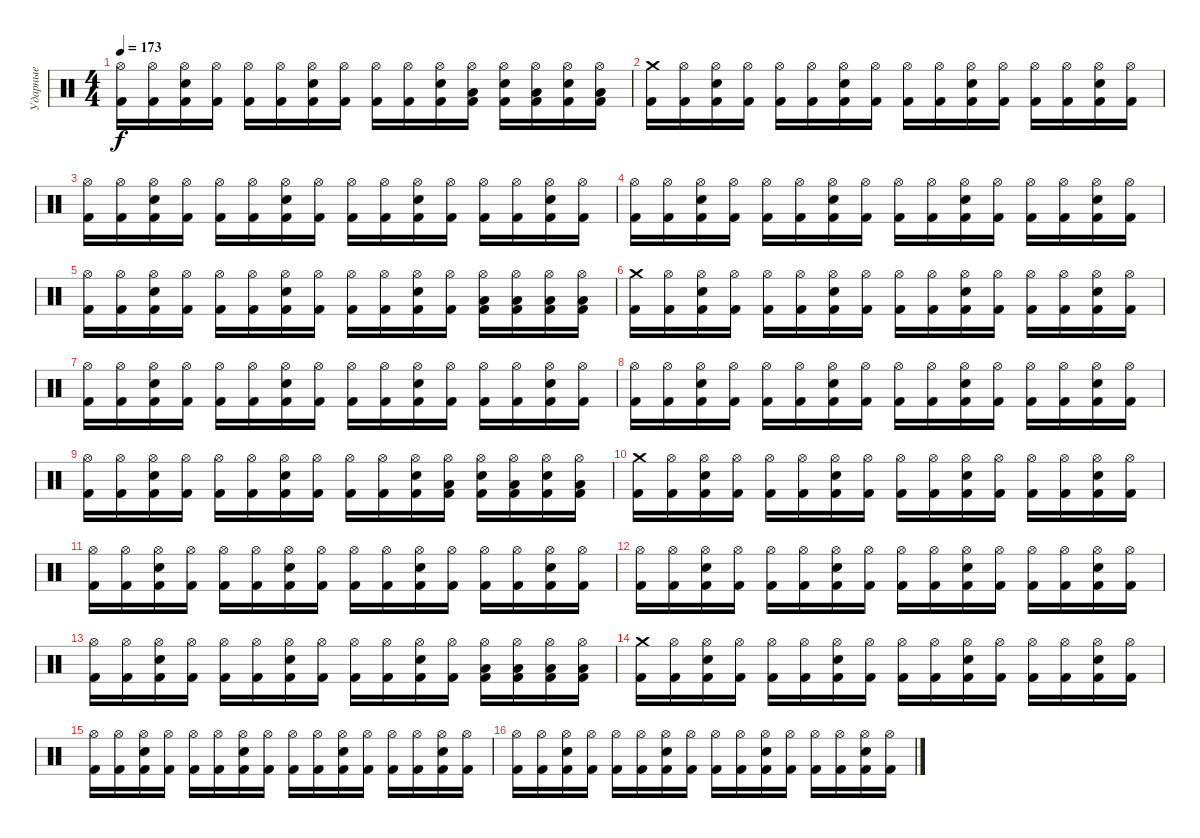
\track ("Ударные" "Ударные") {instrument percussion}
\staff {score}
\articulation defaults
\ts (4 4)
\tempo 173
\clef neutral
\ks c
("Hi-Hat (open)" "Kick (hit) 2").16{dy f} ("Hi-Hat (open)" "Kick (hit) 2").16 ("Hi-Hat (open)" "Electric Snare (hit)" "Kick (hit) 2").16 ("Hi-Hat (open)" "Kick (hit) 2").16 ("Hi-Hat (open)" "Kick (hit) 2").16 ("Hi-Hat (open)" "Kick (hit) 2").16 ("Hi-Hat (open)" "Electric Snare (hit)" "Kick (hit) 2").16 ("Hi-Hat (open)" "Kick (hit) 2").16 ("Hi-Hat (open)" "Kick (hit) 2").16 ("Hi-Hat (open)" "Kick (hit) 2").16 ("Hi-Hat (open)" "Electric Snare (hit)" "Kick (hit) 2").16 ("Hi-Hat (open)" "Low Tom (hit)" "Kick (hit) 2").16 ("Hi-Hat (open)" "Electric Snare (hit)" "Kick (hit) 2").16 ("Hi-Hat (open)" "Low Tom (hit)" "Kick (hit) 2").16 ("Hi-Hat (open)" "Electric Snare (hit)" "Kick (hit) 2").16 ("Hi-Hat (open)" "Low Tom (hit)" "Kick (hit) 2").16 |
("Crash medium (hit)" "Kick (hit) 2").16 ("Hi-Hat (open)" "Kick (hit) 2").16 ("Hi-Hat (open)" "Electric Snare (hit)" "Kick (hit) 2").16 ("Hi-Hat (open)" "Kick (hit) 2").16 ("Hi-Hat (open)" "Kick (hit) 2").16 ("Hi-Hat (open)" "Kick (hit) 2").16 ("Hi-Hat (open)" "Electric Snare (hit)" "Kick (hit) 2").16 ("Hi-Hat (open)" "Kick (hit) 2").16 ("Hi-Hat (open)" "Kick (hit) 2").16 ("Hi-Hat (open)" "Kick (hit) 2").16 ("Hi-Hat (open)" "Electric Snare (hit)" "Kick (hit) 2").16 ("Hi-Hat (open)" "Kick (hit) 2").16 ("Hi-Hat (open)" "Kick (hit) 2").16 ("Hi-Hat (open)" "Kick (hit) 2").16 ("Hi-Hat (open)" "Electric Snare (hit)" "Kick (hit) 2").16 ("Hi-Hat (open)" "Kick (hit) 2").16 |
("Hi-Hat (open)" "Kick (hit) 2").16 ("Hi-Hat (open)" "Kick (hit) 2").16 ("Hi-Hat (open)" "Electric Snare (hit)" "Kick (hit) 2").16 ("Hi-Hat (open)" "Kick (hit) 2").16 ("Hi-Hat (open)" "Kick (hit) 2").16 ("Hi-Hat (open)" "Kick (hit) 2").16 ("Hi-Hat (open)" "Electric Snare (hit)" "Kick (hit) 2").16 ("Hi-Hat (open)" "Kick (hit) 2").16 ("Hi-Hat (open)" "Kick (hit) 2").16 ("Hi-Hat (open)" "Kick (hit) 2").16 ("Hi-Hat (open)" "Electric Snare (hit)" "Kick (hit) 2").16 ("Hi-Hat (open)" "Kick (hit) 2").16 ("Hi-Hat (open)" "Kick (hit) 2").16 ("Hi-Hat (open)" "Kick (hit) 2").16 ("Hi-Hat (open)" "Electric Snare (hit)" "Kick (hit) 2").16 ("Hi-Hat (open)" "Kick (hit) 2").16 |
("Hi-Hat (open)" "Kick (hit) 2").16 ("Hi-Hat (open)" "Kick (hit) 2").16 ("Hi-Hat (open)" "Electric Snare (hit)" "Kick (hit) 2").16 ("Hi-Hat (open)" "Kick (hit) 2").16 ("Hi-Hat (open)" "Kick (hit) 2").16 ("Hi-Hat (open)" "Kick (hit) 2").16 ("Hi-Hat (open)" "Electric Snare (hit)" "Kick (hit) 2").16 ("Hi-Hat (open)" "Kick (hit) 2").16 ("Hi-Hat (open)" "Kick (hit) 2").16 ("Hi-Hat (open)" "Kick (hit) 2").16 ("Hi-Hat (open)" "Electric Snare (hit)" "Kick (hit) 2").16 ("Hi-Hat (open)" "Kick (hit) 2").16 ("Hi-Hat (open)" "Kick (hit) 2").16 ("Hi-Hat (open)" "Kick (hit) 2").16 ("Hi-Hat (open)" "Electric Snare (hit)" "Kick (hit) 2").16 ("Hi-Hat (open)" "Kick (hit) 2").16 |
("Hi-Hat (open)" "Kick (hit) 2").16 ("Hi-Hat (open)" "Kick (hit) 2").16 ("Hi-Hat (open)" "Electric Snare (hit)" "Kick (hit) 2").16 ("Hi-Hat (open)" "Kick (hit) 2").16 ("Hi-Hat (open)" "Kick (hit) 2").16 ("Hi-Hat (open)" "Kick (hit) 2").16 ("Hi-Hat (open)" "Electric Snare (hit)" "Kick (hit) 2").16 ("Hi-Hat (open)" "Kick (hit) 2").16 ("Hi-Hat (open)" "Kick (hit) 2").16 ("Hi-Hat (open)" "Kick (hit) 2").16 ("Hi-Hat (open)" "Electric Snare (hit)" "Kick (hit) 2").16 ("Hi-Hat (open)" "Kick (hit) 2").16 ("Hi-Hat (open)" "Low Tom (hit)" "Kick (hit) 2").16 ("Hi-Hat (open)" "Low Tom (hit)" "Kick (hit) 2").16 ("Hi-Hat (open)" "Low Tom (hit)" "Kick (hit) 2").16 ("Hi-Hat (open)" "Low Tom (hit)" "Kick (hit) 2").16 |
("Crash medium (hit)" "Kick (hit) 2").16 ("Hi-Hat (open)" "Kick (hit) 2").16 ("Hi-Hat (open)" "Electric Snare (hit)" "Kick (hit) 2").16 ("Hi-Hat (open)" "Kick (hit) 2").16 ("Hi-Hat (open)" "Kick (hit) 2").16 ("Hi-Hat (open)" "Kick (hit) 2").16 ("Hi-Hat (open)" "Electric Snare (hit)" "Kick (hit) 2").16 ("Hi-Hat (open)" "Kick (hit) 2").16 ("Hi-Hat (open)" "Kick (hit) 2").16 ("Hi-Hat (open)" "Kick (hit) 2").16 ("Hi-Hat (open)" "Electric Snare (hit)" "Kick (hit) 2").16 ("Hi-Hat (open)" "Kick (hit) 2").16 ("Hi-Hat (open)" "Kick (hit) 2").16 ("Hi-Hat (open)" "Kick (hit) 2").16 ("Hi-Hat (open)" "Electric Snare (hit)" "Kick (hit) 2").16 ("Hi-Hat (open)" "Kick (hit) 2").16 |
("Hi-Hat (open)" "Kick (hit) 2").16 ("Hi-Hat (open)" "Kick (hit) 2").16 ("Hi-Hat (open)" "Electric Snare (hit)" "Kick (hit) 2").16 ("Hi-Hat (open)" "Kick (hit) 2").16 ("Hi-Hat (open)" "Kick (hit) 2").16 ("Hi-Hat (open)" "Kick (hit) 2").16 ("Hi-Hat (open)" "Electric Snare (hit)" "Kick (hit) 2").16 ("Hi-Hat (open)" "Kick (hit) 2").16 ("Hi-Hat (open)" "Kick (hit) 2").16 ("Hi-Hat (open)" "Kick (hit) 2").16 ("Hi-Hat (open)" "Electric Snare (hit)" "Kick (hit) 2").16 ("Hi-Hat (open)" "Kick (hit) 2").16 ("Hi-Hat (open)" "Kick (hit) 2").16 ("Hi-Hat (open)" "Kick (hit) 2").16 ("Hi-Hat (open)" "Electric Snare (hit)" "Kick (hit) 2").16 ("Hi-Hat (open)" "Kick (hit) 2").16 |
("Hi-Hat (open)" "Kick (hit) 2").16 ("Hi-Hat (open)" "Kick (hit) 2").16 ("Hi-Hat (open)" "Electric Snare (hit)" "Kick (hit) 2").16 ("Hi-Hat (open)" "Kick (hit) 2").16 ("Hi-Hat (open)" "Kick (hit) 2").16 ("Hi-Hat (open)" "Kick (hit) 2").16 ("Hi-Hat (open)" "Electric Snare (hit)" "Kick (hit) 2").16 ("Hi-Hat (open)" "Kick (hit) 2").16 ("Hi-Hat (open)" "Kick (hit) 2").16 ("Hi-Hat (open)" "Kick (hit) 2").16 ("Hi-Hat (open)" "Electric Snare (hit)" "Kick (hit) 2").16 ("Hi-Hat (open)" "Kick (hit) 2").16 ("Hi-Hat (open)" "Kick (hit) 2").16 ("Hi-Hat (open)" "Kick (hit) 2").16 ("Hi-Hat (open)" "Electric Snare (hit)" "Kick (hit) 2").16 ("Hi-Hat (open)" "Kick (hit) 2").16 |
("Hi-Hat (open)" "Kick (hit) 2").16 ("Hi-Hat (open)" "Kick (hit) 2").16 ("Hi-Hat (open)" "Electric Snare (hit)" "Kick (hit) 2").16 ("Hi-Hat (open)" "Kick (hit) 2").16 ("Hi-Hat (open)" "Kick (hit) 2").16 ("Hi-Hat (open)" "Kick (hit) 2").16 ("Hi-Hat (open)" "Electric Snare (hit)" "Kick (hit) 2").16 ("Hi-Hat (open)" "Kick (hit) 2").16 ("Hi-Hat (open)" "Kick (hit) 2").16 ("Hi-Hat (open)" "Kick (hit) 2").16 ("Hi-Hat (open)" "Electric Snare (hit)" "Kick (hit) 2").16 ("Hi-Hat (open)" "Low Tom (hit)" "Kick (hit) 2").16 ("Hi-Hat (open)" "Electric Snare (hit)" "Kick (hit) 2").16 ("Hi-Hat (open)" "Low Tom (hit)" "Kick (hit) 2").16 ("Hi-Hat (open)" "Electric Snare (hit)" "Kick (hit) 2").16 ("Hi-Hat (open)" "Low Tom (hit)" "Kick (hit) 2").16 |
("Crash medium (hit)" "Kick (hit) 2").16 ("Hi-Hat (open)" "Kick (hit) 2").16 ("Hi-Hat (open)" "Electric Snare (hit)" "Kick (hit) 2").16 ("Hi-Hat (open)" "Kick (hit) 2").16 ("Hi-Hat (open)" "Kick (hit) 2").16 ("Hi-Hat (open)" "Kick (hit) 2").16 ("Hi-Hat (open)" "Electric Snare (hit)" "Kick (hit) 2").16 ("Hi-Hat (open)" "Kick (hit) 2").16 ("Hi-Hat (open)" "Kick (hit) 2").16 ("Hi-Hat (open)" "Kick (hit) 2").16 ("Hi-Hat (open)" "Electric Snare (hit)" "Kick (hit) 2").16 ("Hi-Hat (open)" "Kick (hit) 2").16 ("Hi-Hat (open)" "Kick (hit) 2").16 ("Hi-Hat (open)" "Kick (hit) 2").16 ("Hi-Hat (open)" "Electric Snare (hit)" "Kick (hit) 2").16 ("Hi-Hat (open)" "Kick (hit) 2").16 |
("Hi-Hat (open)" "Kick (hit) 2").16 ("Hi-Hat (open)" "Kick (hit) 2").16 ("Hi-Hat (open)" "Electric Snare (hit)" "Kick (hit) 2").16 ("Hi-Hat (open)" "Kick (hit) 2").16 ("Hi-Hat (open)" "Kick (hit) 2").16 ("Hi-Hat (open)" "Kick (hit) 2").16 ("Hi-Hat (open)" "Electric Snare (hit)" "Kick (hit) 2").16 ("Hi-Hat (open)" "Kick (hit) 2").16 ("Hi-Hat (open)" "Kick (hit) 2").16 ("Hi-Hat (open)" "Kick (hit) 2").16 ("Hi-Hat (open)" "Electric Snare (hit)" "Kick (hit) 2").16 ("Hi-Hat (open)" "Kick (hit) 2").16 ("Hi-Hat (open)" "Kick (hit) 2").16 ("Hi-Hat (open)" "Kick (hit) 2").16 ("Hi-Hat (open)" "Electric Snare (hit)" "Kick (hit) 2").16 ("Hi-Hat (open)" "Kick (hit) 2").16 |
("Hi-Hat (open)" "Kick (hit) 2").16 ("Hi-Hat (open)" "Kick (hit) 2").16 ("Hi-Hat (open)" "Electric Snare (hit)" "Kick (hit) 2").16 ("Hi-Hat (open)" "Kick (hit) 2").16 ("Hi-Hat (open)" "Kick (hit) 2").16 ("Hi-Hat (open)" "Kick (hit) 2").16 ("Hi-Hat (open)" "Electric Snare (hit)" "Kick (hit) 2").16 ("Hi-Hat (open)" "Kick (hit) 2").16 ("Hi-Hat (open)" "Kick (hit) 2").16 ("Hi-Hat (open)" "Kick (hit) 2").16 ("Hi-Hat (open)" "Electric Snare (hit)" "Kick (hit) 2").16 ("Hi-Hat (open)" "Kick (hit) 2").16 ("Hi-Hat (open)" "Kick (hit) 2").16 ("Hi-Hat (open)" "Kick (hit) 2").16 ("Hi-Hat (open)" "Electric Snare (hit)" "Kick (hit) 2").16 ("Hi-Hat (open)" "Kick (hit) 2").16 |
("Hi-Hat (open)" "Kick (hit) 2").16 ("Hi-Hat (open)" "Kick (hit) 2").16 ("Hi-Hat (open)" "Electric Snare (hit)" "Kick (hit) 2").16 ("Hi-Hat (open)" "Kick (hit) 2").16 ("Hi-Hat (open)" "Kick (hit) 2").16 ("Hi-Hat (open)" "Kick (hit) 2").16 ("Hi-Hat (open)" "Electric Snare (hit)" "Kick (hit) 2").16 ("Hi-Hat (open)" "Kick (hit) 2").16 ("Hi-Hat (open)" "Kick (hit) 2").16 ("Hi-Hat (open)" "Kick (hit) 2").16 ("Hi-Hat (open)" "Electric Snare (hit)" "Kick (hit) 2").16 ("Hi-Hat (open)" "Kick (hit) 2").16 ("Hi-Hat (open)" "Low Tom (hit)" "Kick (hit) 2").16 ("Hi-Hat (open)" "Low Tom (hit)" "Kick (hit) 2").16 ("Hi-Hat (open)" "Low Tom (hit)" "Kick (hit) 2").16 ("Hi-Hat (open)" "Low Tom (hit)" "Kick (hit) 2").16 |
("Crash medium (hit)" "Kick (hit) 2").16 ("Hi-Hat (open)" "Kick (hit) 2").16 ("Hi-Hat (open)" "Electric Snare (hit)" "Kick (hit) 2").16 ("Hi-Hat (open)" "Kick (hit) 2").16 ("Hi-Hat (open)" "Kick (hit) 2").16 ("Hi-Hat (open)" "Kick (hit) 2").16 ("Hi-Hat (open)" "Electric Snare (hit)" "Kick (hit) 2").16 ("Hi-Hat (open)" "Kick (hit) 2").16 ("Hi-Hat (open)" "Kick (hit) 2").16 ("Hi-Hat (open)" "Kick (hit) 2").16 ("Hi-Hat (open)" "Electric Snare (hit)" "Kick (hit) 2").16 ("Hi-Hat (open)" "Kick (hit) 2").16 ("Hi-Hat (open)" "Kick (hit) 2").16 ("Hi-Hat (open)" "Kick (hit) 2").16 ("Hi-Hat (open)" "Electric Snare (hit)" "Kick (hit) 2").16 ("Hi-Hat (open)" "Kick (hit) 2").16 |
("Hi-Hat (open)" "Kick (hit) 2").16 ("Hi-Hat (open)" "Kick (hit) 2").16 ("Hi-Hat (open)" "Electric Snare (hit)" "Kick (hit) 2").16 ("Hi-Hat (open)" "Kick (hit) 2").16 ("Hi-Hat (open)" "Kick (hit) 2").16 ("Hi-Hat (open)" "Kick (hit) 2").16 ("Hi-Hat (open)" "Electric Snare (hit)" "Kick (hit) 2").16 ("Hi-Hat (open)" "Kick (hit) 2").16 ("Hi-Hat (open)" "Kick (hit) 2").16 ("Hi-Hat (open)" "Kick (hit) 2").16 ("Hi-Hat (open)" "Electric Snare (hit)" "Kick (hit) 2").16 ("Hi-Hat (open)" "Kick (hit) 2").16 ("Hi-Hat (open)" "Kick (hit) 2").16 ("Hi-Hat (open)" "Kick (hit) 2").16 ("Hi-Hat (open)" "Electric Snare (hit)" "Kick (hit) 2").16 ("Hi-Hat (open)" "Kick (hit) 2").16 |
("Hi-Hat (open)" "Kick (hit) 2").16 ("Hi-Hat (open)" "Kick (hit) 2").16 ("Hi-Hat (open)" "Electric Snare (hit)" "Kick (hit) 2").16 ("Hi-Hat (open)" "Kick (hit) 2").16 ("Hi-Hat (open)" "Kick (hit) 2").16 ("Hi-Hat (open)" "Kick (hit) 2").16 ("Hi-Hat (open)" "Electric Snare (hit)" "Kick (hit) 2").16 ("Hi-Hat (open)" "Kick (hit) 2").16 ("Hi-Hat (open)" "Kick (hit) 2").16 ("Hi-Hat (open)" "Kick (hit) 2").16 ("Hi-Hat (open)" "Electric Snare (hit)" "Kick (hit) 2").16 ("Hi-Hat (open)" "Kick (hit) 2").16 ("Hi-Hat (open)" "Kick (hit) 2").16 ("Hi-Hat (open)" "Kick (hit) 2").16 ("Hi-Hat (open)" "Electric Snare (hit)" "Kick (hit) 2").16 ("Hi-Hat (open)" "Kick (hit) 2").16
